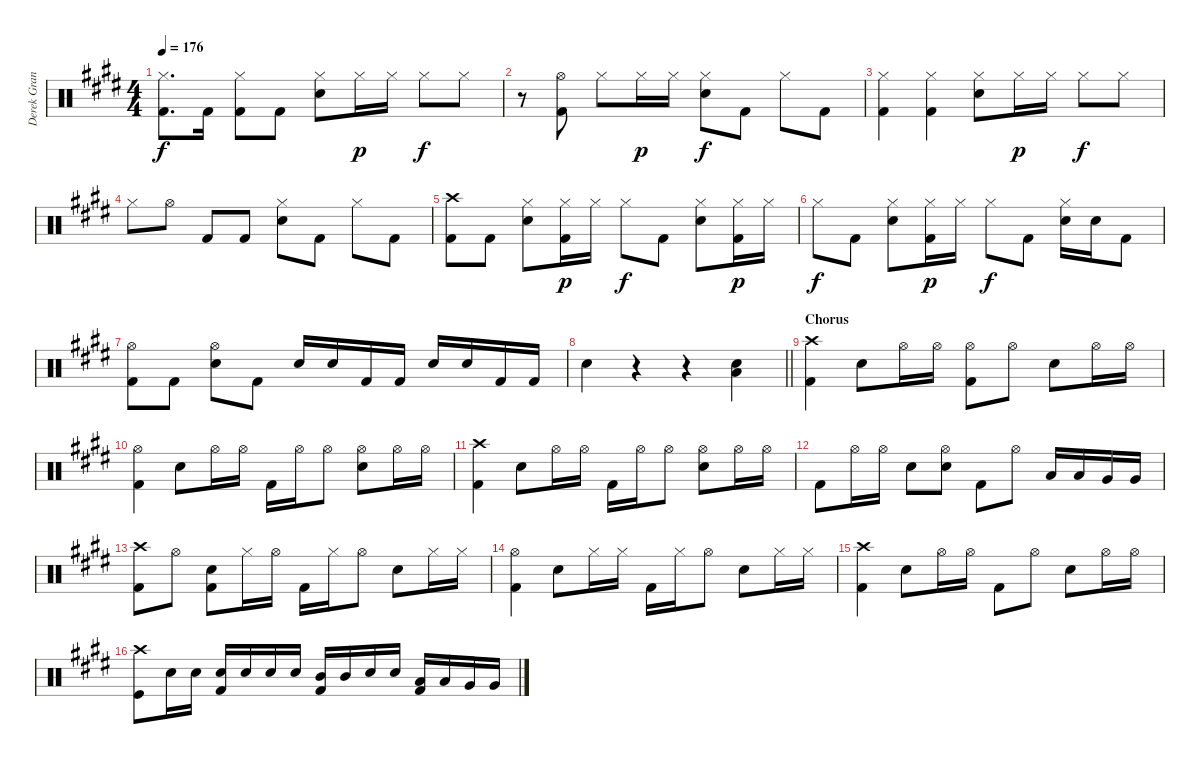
\track ("Derek Grant - Drums" "Derek Gran") {instrument percussion}
\staff {score}
\articulation defaults
\ts (4 4)
\tempo 176
\clef neutral
\ks e
("Kick (hit) 2" "Hi-Hat (closed)").8{d dy f} "Kick (hit) 2".16 ("Kick (hit) 2" "Hi-Hat (closed)").8 "Kick (hit) 2".8 ("Snare (hit) 2" "Hi-Hat (closed)").8 "Hi-Hat (closed)".16{dy p} "Hi-Hat (closed)".16 "Hi-Hat (closed)".8{dy f} "Hi-Hat (closed)".8 |
r.8 ("Kick (hit) 2" "Hi-Hat (open)").8 "Hi-Hat (closed)".8 "Hi-Hat (closed)".16{dy p} "Hi-Hat (closed)".16 ("Hi-Hat (closed)" "Snare (hit) 2").8{dy f} "Kick (hit) 2".8 "Hi-Hat (closed)".8 "Kick (hit) 2".8 |
("Kick (hit) 2" "Hi-Hat (closed)").4 ("Kick (hit) 2" "Hi-Hat (closed)").4 ("Hi-Hat (closed)" "Snare (hit) 2").8 "Hi-Hat (closed)".16{dy p} "Hi-Hat (closed)".16 "Hi-Hat (closed)".8{dy f} "Hi-Hat (closed)".8 |
"Hi-Hat (closed)".8 "Hi-Hat (open)".8 "Kick (hit) 2".8 "Kick (hit) 2".8 ("Snare (hit) 2" "Hi-Hat (closed)").8 "Kick (hit) 2".8 "Hi-Hat (closed)".8 "Kick (hit) 2".8 |
("Kick (hit) 2" "Crash high (hit)").8 "Kick (hit) 2".8 ("Snare (hit) 2" "Hi-Hat (closed)").8 ("Kick (hit) 2" "Hi-Hat (closed)").16{dy p} "Hi-Hat (closed)".16 "Hi-Hat (closed)".8{dy f} "Kick (hit) 2".8 ("Snare (hit) 2" "Hi-Hat (closed)").8 ("Kick (hit) 2" "Hi-Hat (closed)").16{dy p} "Hi-Hat (closed)".16 |
"Hi-Hat (closed)".8{dy f} "Kick (hit) 2".8 ("Snare (hit) 2" "Hi-Hat (closed)").8 ("Kick (hit) 2" "Hi-Hat (closed)").16{dy p} "Hi-Hat (closed)".16 "Hi-Hat (closed)".8{dy f} "Kick (hit) 2".8 ("Snare (hit) 2" "Hi-Hat (closed)").16 "Snare (hit) 2".16 "Kick (hit) 2".8 |
("Kick (hit) 2" "Hi-Hat (open)").8 "Kick (hit) 2".8 ("Snare (hit) 2" "Hi-Hat (open)").8 "Kick (hit) 2".8 "Snare (hit) 2".16 "Snare (hit) 2".16 "Kick (hit) 2".16 "Kick (hit) 2".16 "Snare (hit) 2".16 "Snare (hit) 2".16 "Kick (hit) 2".16 "Kick (hit) 2".16 |
\barLineRight lightlight "Snare (hit) 2".4
r.4 r.4 ("Snare (hit) 2" "Low Floor Tom (hit)").4 |
\section ("" "Chorus")
("Crash high (hit)" "Kick (hit) 2").4 "Snare (hit) 2".8 "Hi-Hat (open)".16 "Hi-Hat (open)".16 ("Kick (hit) 2" "Hi-Hat (open)").8 "Hi-Hat (open)".8 "Snare (hit) 2".8 "Hi-Hat (open)".16 "Hi-Hat (open)".16 |
("Kick (hit) 2" "Hi-Hat (open)").4 "Snare (hit) 2".8 "Hi-Hat (open)".16 "Hi-Hat (open)".16 "Kick (hit) 2".16 "Hi-Hat (open)".16 "Hi-Hat (open)".8 ("Snare (hit) 2" "Hi-Hat (open)").8 "Hi-Hat (open)".16 "Hi-Hat (open)".16 |
("Kick (hit) 2" "Crash high (hit)").4 "Snare (hit) 2".8 "Hi-Hat (open)".16 "Hi-Hat (open)".16 "Kick (hit) 2".16 "Hi-Hat (open)".16 "Hi-Hat (open)".8 ("Snare (hit) 2" "Hi-Hat (open)").8 "Hi-Hat (open)".16 "Hi-Hat (open)".16 |
"Kick (hit) 2".8 "Hi-Hat (open)".16 "Hi-Hat (open)".16 "Snare (hit) 2".8 ("Hi-Hat (open)" "Snare (hit) 2").8 "Kick (hit) 2".8 "Hi-Hat (open)".8 "Low Tom (hit)".16 "Low Tom (hit)".16 "Very Low Tom (hit)".16 "Very Low Tom (hit)".16 |
("Kick (hit) 2" "Crash high (hit)").8 "Hi-Hat (open)".8 ("Kick (hit) 2" "Snare (hit) 2").8 "Hi-Hat (closed)".16 "Hi-Hat (open)".16 "Kick (hit) 2".16 "Hi-Hat (closed)".16 "Hi-Hat (open)".8 "Snare (hit) 2".8 "Hi-Hat (closed)".16 "Hi-Hat (closed)".16 |
("Kick (hit) 2" "Hi-Hat (open)").4 "Snare (hit) 2".8 "Hi-Hat (closed)".16 "Hi-Hat (closed)".16 "Kick (hit) 2".16 "Hi-Hat (closed)".16 "Hi-Hat (open)".8 "Snare (hit) 2".8 "Hi-Hat (closed)".16 "Hi-Hat (closed)".16 |
("Kick (hit) 2" "Crash high (hit)").4 "Snare (hit) 2".8 "Hi-Hat (open)".16 "Hi-Hat (open)".16 "Kick (hit) 2".8 "Hi-Hat (open)".8 "Snare (hit) 2".8 "Hi-Hat (open)".16 "Hi-Hat (open)".16 |
("Kick (hit)" "Crash high (hit)").8 "Snare (hit) 2".16 "Snare (hit) 2".16 ("Snare (hit) 2" "Kick (hit) 2").16 "Snare (hit) 2".16 "Snare (hit) 2".16 "Snare (hit) 2".16 ("Mid Tom (hit)" "Kick (hit) 2").16 "Mid Tom (hit)".16 "Snare (hit) 2".16 "Snare (hit) 2".16 ("Low Tom (hit)" "Kick (hit) 2").16 "Low Tom (hit)".16 "Very Low Tom (hit)".16 "Very Low Tom (hit)".16
